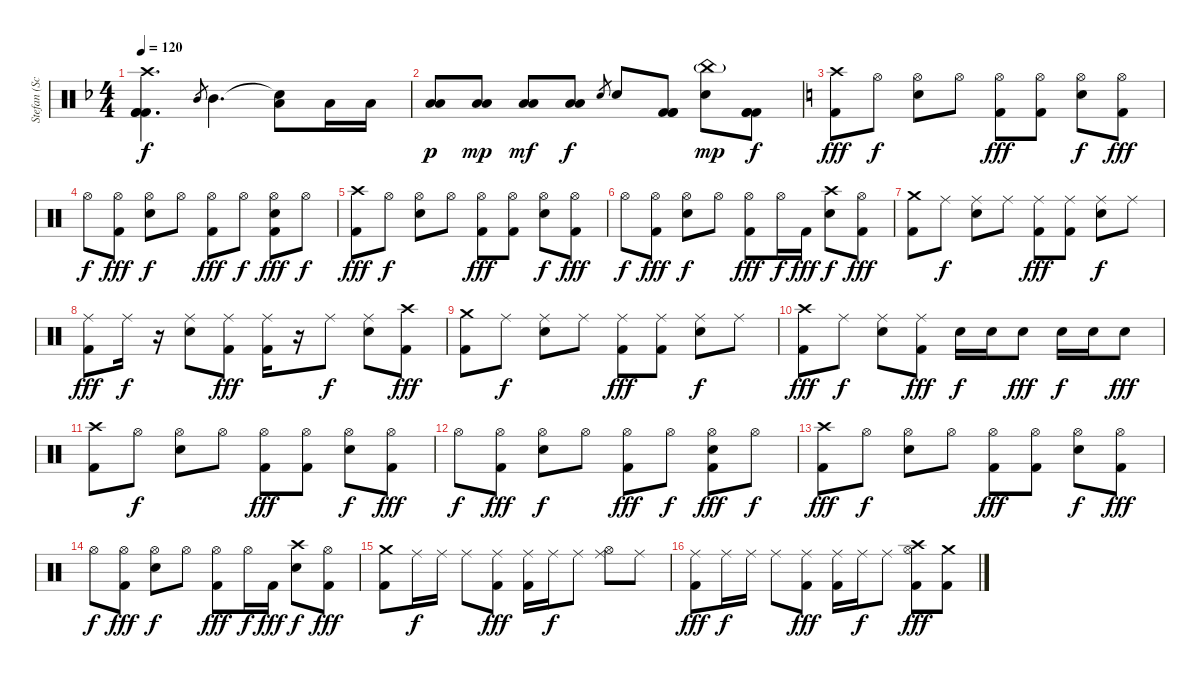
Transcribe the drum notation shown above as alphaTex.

\track ("Stefan (Schlagzeug)" "Stefan (Sc") {instrument percussion}
\staff {score}
\articulation defaults
\ts (4 4)
\tempo 120
\clef neutral
\ks f
("Crash high (hit)" "Kick (hit) 2" "Kick (hit) 2" "Kick (hit) 2").4{d dy f} "Mid Tom (hit)".8{gr} "Mid Tom (hit)".4{d} ("Snare (hit)"{t} "Low Tom (hit)").8 "Low Tom (hit)".16 "Low Tom (hit)".16 |
("Low Tom (hit)" "Low Tom (hit)").8{dy p} ("Low Tom (hit)" "Low Tom (hit)").8{dy mp} ("Low Tom (hit)" "Low Tom (hit)").8{dy mf} ("Low Tom (hit)" "Low Tom (hit)").8{dy f} "Snare (hit) 2".8{gr} "Snare (hit) 2".8 ("Kick (hit) 2" "Kick (hit) 2" "Kick (hit) 2").8 ("China (hit)"{g} "Snare (hit) 2").8{dy mp} ("Kick (hit) 2" "Kick (hit) 2" "Kick (hit) 2").8{dy f} |
\ks c
("Crash high (hit)" "Kick (hit) 2").8{dy fff} "Hi-Hat (open)".8{dy f} ("Hi-Hat (open)" "Snare (hit) 2").8 "Hi-Hat (open)".8 ("Hi-Hat (open)" "Kick (hit) 2").8{dy fff} ("Hi-Hat (open)" "Kick (hit) 2").8 ("Hi-Hat (open)" "Snare (hit) 2").8{dy f} ("Hi-Hat (open)" "Kick (hit) 2").8{dy fff} |
"Hi-Hat (open)".8{dy f} ("Hi-Hat (open)" "Kick (hit) 2").8{dy fff} ("Hi-Hat (open)" "Snare (hit) 2").8{dy f} "Hi-Hat (open)".8 ("Hi-Hat (open)" "Kick (hit) 2").8{dy fff} "Hi-Hat (open)".8{dy f} ("Hi-Hat (open)" "Snare (hit) 2" "Kick (hit) 2").8{dy fff} "Hi-Hat (open)".8{dy f} |
("Crash high (hit)" "Kick (hit) 2").8{dy fff} "Hi-Hat (open)".8{dy f} ("Hi-Hat (open)" "Snare (hit) 2").8 "Hi-Hat (open)".8 ("Hi-Hat (open)" "Kick (hit) 2").8{dy fff} ("Hi-Hat (open)" "Kick (hit) 2").8 ("Hi-Hat (open)" "Snare (hit) 2").8{dy f} ("Hi-Hat (open)" "Kick (hit) 2").8{dy fff} |
"Hi-Hat (open)".8{dy f} ("Hi-Hat (open)" "Kick (hit) 2").8{dy fff} ("Hi-Hat (open)" "Snare (hit) 2").8{dy f} "Hi-Hat (open)".8 ("Hi-Hat (open)" "Kick (hit) 2").8{dy fff} "Hi-Hat (open)".16{dy f} "Kick (hit) 2".16{dy fff} ("Crash high (hit)" "Snare (hit) 2").8{dy f} ("Hi-Hat (open)" "Kick (hit) 2").8{dy fff} |
("Crash medium (hit)" "Kick (hit) 2").8 "Ride (middle)".8{dy f} ("Ride (middle)" "Snare (hit) 2").8 "Ride (middle)".8 ("Ride (middle)" "Kick (hit) 2").8{dy fff} ("Ride (middle)" "Kick (hit) 2").8 ("Ride (middle)" "Snare (hit) 2").8{dy f} "Ride (middle)".8 |
("Ride (middle)" "Kick (hit) 2").8{dy fff} "Ride (middle)".16{dy f} r.16 ("Ride (middle)" "Snare (hit) 2").8 ("Ride (middle)" "Kick (hit) 2").8{dy fff} ("Ride (middle)" "Kick (hit) 2").16 r.16 "Ride (middle)".8{dy f} ("Ride (middle)" "Snare (hit) 2").8 ("Crash high (hit)" "Kick (hit) 2").8{dy fff} |
("Crash medium (hit)" "Kick (hit) 2").8 "Ride (middle)".8{dy f} ("Ride (middle)" "Snare (hit) 2").8 "Ride (middle)".8 ("Ride (middle)" "Kick (hit) 2").8{dy fff} ("Ride (middle)" "Kick (hit) 2").8 ("Ride (middle)" "Snare (hit) 2").8{dy f} "Ride (middle)".8 |
("Crash high (hit)" "Kick (hit) 2").8{dy fff} "Ride (middle)".8{dy f} ("Ride (middle)" "Snare (hit) 2").8 ("Ride (middle)" "Kick (hit) 2").8{dy fff} "Snare (hit) 2".16{dy f} "Snare (hit) 2".16 "Snare (hit) 2".8{dy fff} "Snare (hit) 2".16{dy f} "Snare (hit) 2".16 "Snare (hit) 2".8{dy fff} |
("Crash high (hit)" "Kick (hit) 2").8 "Hi-Hat (open)".8{dy f} ("Hi-Hat (open)" "Snare (hit) 2").8 "Hi-Hat (open)".8 ("Hi-Hat (open)" "Kick (hit) 2").8{dy fff} ("Hi-Hat (open)" "Kick (hit) 2").8 ("Hi-Hat (open)" "Snare (hit) 2").8{dy f} ("Hi-Hat (open)" "Kick (hit) 2").8{dy fff} |
"Hi-Hat (open)".8{dy f} ("Hi-Hat (open)" "Kick (hit) 2").8{dy fff} ("Hi-Hat (open)" "Snare (hit) 2").8{dy f} "Hi-Hat (open)".8 ("Hi-Hat (open)" "Kick (hit) 2").8{dy fff} "Hi-Hat (open)".8{dy f} ("Hi-Hat (open)" "Snare (hit) 2" "Kick (hit) 2").8{dy fff} "Hi-Hat (open)".8{dy f} |
("Crash high (hit)" "Kick (hit) 2").8{dy fff} "Hi-Hat (open)".8{dy f} ("Hi-Hat (open)" "Snare (hit) 2").8 "Hi-Hat (open)".8 ("Hi-Hat (open)" "Kick (hit) 2").8{dy fff} ("Hi-Hat (open)" "Kick (hit) 2").8 ("Hi-Hat (open)" "Snare (hit) 2").8{dy f} ("Hi-Hat (open)" "Kick (hit) 2").8{dy fff} |
"Hi-Hat (open)".8{dy f} ("Hi-Hat (open)" "Kick (hit) 2").8{dy fff} ("Hi-Hat (open)" "Snare (hit) 2").8{dy f} "Hi-Hat (open)".8 ("Hi-Hat (open)" "Kick (hit) 2").8{dy fff} "Hi-Hat (open)".16{dy f} "Kick (hit) 2".16{dy fff} ("Crash high (hit)" "Snare (hit) 2").8{dy f} ("Hi-Hat (open)" "Kick (hit) 2").8{dy fff} |
("Crash medium (hit)" "Kick (hit) 2").8 "Ride (middle)".16{dy f} "Ride (middle)".16 "Ride (middle)".8 ("Ride (middle)" "Kick (hit) 2").8{dy fff} ("Ride (middle)" "Kick (hit) 2").16 "Ride (middle)".16{dy f} "Ride (middle)".8 ("Ride (middle)" "Hi-Hat (open)").8 "Ride (middle)".8 |
("Ride (middle)" "Kick (hit) 2").8{dy fff} "Ride (middle)".16{dy f} "Ride (middle)".16 "Ride (middle)".8 ("Ride (middle)" "Kick (hit) 2").8{dy fff} ("Ride (middle)" "Kick (hit) 2").16 "Ride (middle)".16{dy f} "Ride (middle)".8 ("Crash high (hit)" "Hi-Hat (open)" "Kick (hit) 2").8{dy fff} ("Crash medium (hit)" "Kick (hit) 2").8
